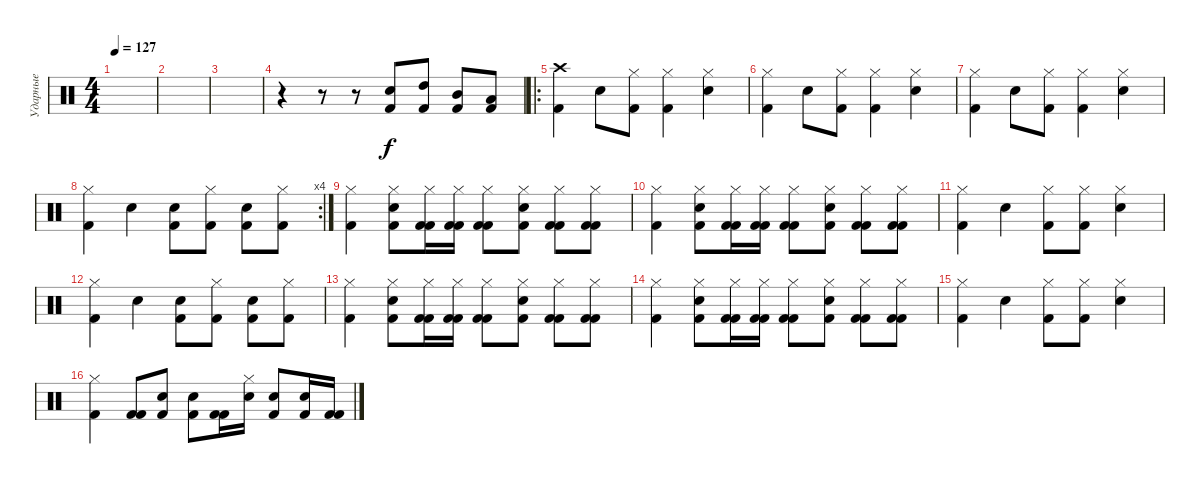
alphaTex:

\track ("Ударные" "Ударные") {instrument percussion}
\staff {score}
\articulation defaults
\ts (4 4)
\tempo 127
\clef neutral
\ks c
|
|
|
r.4 r.8 r.8 ("Kick (hit) 2" "Electric Snare (hit)").8 ("Kick (hit) 2" "High Tom (hit)").8 ("Kick (hit) 2" "Mid Tom (hit)").8 ("Kick (hit) 2" "Low Tom (hit)").8 |
\ro
("Crash high (hit)" "Kick (hit) 2").4 "Electric Snare (hit)".8 ("Hi-Hat (closed)" "Kick (hit) 2").8 ("Hi-Hat (closed)" "Kick (hit) 2").4 ("Hi-Hat (closed)" "Electric Snare (hit)").4 |
("Hi-Hat (closed)" "Kick (hit) 2").4 "Electric Snare (hit)".8 ("Hi-Hat (closed)" "Kick (hit) 2").8 ("Hi-Hat (closed)" "Kick (hit) 2").4 ("Hi-Hat (closed)" "Electric Snare (hit)").4 |
("Hi-Hat (closed)" "Kick (hit) 2").4 "Electric Snare (hit)".8 ("Hi-Hat (closed)" "Kick (hit) 2").8 ("Hi-Hat (closed)" "Kick (hit) 2").4 ("Hi-Hat (closed)" "Electric Snare (hit)").4 |
\rc 4
("Hi-Hat (closed)" "Kick (hit) 2").4 "Electric Snare (hit)".4 ("Kick (hit) 2" "Electric Snare (hit)").8 ("Hi-Hat (closed)" "Kick (hit) 2").8 ("Kick (hit) 2" "Electric Snare (hit)").8 ("Hi-Hat (closed)" "Kick (hit) 2").8 |
("Hi-Hat (closed)" "Kick (hit) 2").4 ("Hi-Hat (closed)" "Kick (hit) 2" "Electric Snare (hit)").8 ("Hi-Hat (closed)" "Kick (hit) 2" "Kick (hit) 2").16 ("Hi-Hat (closed)" "Kick (hit) 2" "Kick (hit) 2").16 ("Hi-Hat (closed)" "Kick (hit) 2" "Kick (hit) 2").8 ("Hi-Hat (closed)" "Kick (hit) 2" "Electric Snare (hit)").8 ("Hi-Hat (closed)" "Kick (hit) 2" "Kick (hit) 2").8 ("Hi-Hat (closed)" "Kick (hit) 2" "Kick (hit) 2").8 |
("Hi-Hat (closed)" "Kick (hit) 2").4 ("Hi-Hat (closed)" "Kick (hit) 2" "Electric Snare (hit)").8 ("Hi-Hat (closed)" "Kick (hit) 2" "Kick (hit) 2").16 ("Hi-Hat (closed)" "Kick (hit) 2" "Kick (hit) 2").16 ("Hi-Hat (closed)" "Kick (hit) 2" "Kick (hit) 2").8 ("Hi-Hat (closed)" "Kick (hit) 2" "Electric Snare (hit)").8 ("Hi-Hat (closed)" "Kick (hit) 2" "Kick (hit) 2").8 ("Hi-Hat (closed)" "Kick (hit) 2" "Kick (hit) 2").8 |
("Hi-Hat (closed)" "Kick (hit) 2").4 "Electric Snare (hit)".4 ("Hi-Hat (closed)" "Kick (hit) 2").8 ("Hi-Hat (closed)" "Kick (hit) 2").8 ("Hi-Hat (closed)" "Electric Snare (hit)").4 |
("Hi-Hat (closed)" "Kick (hit) 2").4 "Electric Snare (hit)".4 ("Kick (hit) 2" "Electric Snare (hit)").8 ("Hi-Hat (closed)" "Kick (hit) 2").8 ("Kick (hit) 2" "Electric Snare (hit)").8 ("Hi-Hat (closed)" "Kick (hit) 2").8 |
("Hi-Hat (closed)" "Kick (hit) 2").4 ("Hi-Hat (closed)" "Kick (hit) 2" "Electric Snare (hit)").8 ("Hi-Hat (closed)" "Kick (hit) 2" "Kick (hit) 2").16 ("Hi-Hat (closed)" "Kick (hit) 2" "Kick (hit) 2").16 ("Hi-Hat (closed)" "Kick (hit) 2" "Kick (hit) 2").8 ("Hi-Hat (closed)" "Kick (hit) 2" "Electric Snare (hit)").8 ("Hi-Hat (closed)" "Kick (hit) 2" "Kick (hit) 2").8 ("Hi-Hat (closed)" "Kick (hit) 2" "Kick (hit) 2").8 |
("Hi-Hat (closed)" "Kick (hit) 2").4 ("Hi-Hat (closed)" "Kick (hit) 2" "Electric Snare (hit)").8 ("Hi-Hat (closed)" "Kick (hit) 2" "Kick (hit) 2").16 ("Hi-Hat (closed)" "Kick (hit) 2" "Kick (hit) 2").16 ("Hi-Hat (closed)" "Kick (hit) 2" "Kick (hit) 2").8 ("Hi-Hat (closed)" "Kick (hit) 2" "Electric Snare (hit)").8 ("Hi-Hat (closed)" "Kick (hit) 2" "Kick (hit) 2").8 ("Hi-Hat (closed)" "Kick (hit) 2" "Kick (hit) 2").8 |
("Hi-Hat (closed)" "Kick (hit) 2").4 "Electric Snare (hit)".4 ("Hi-Hat (closed)" "Kick (hit) 2").8 ("Hi-Hat (closed)" "Kick (hit) 2").8 ("Hi-Hat (closed)" "Electric Snare (hit)").4 |
("Hi-Hat (closed)" "Kick (hit) 2").4 ("Kick (hit) 2" "Kick (hit) 2").8 ("Kick (hit) 2" "Electric Snare (hit)").8 ("Kick (hit) 2" "Electric Snare (hit)").8 ("Kick (hit) 2" "Kick (hit) 2").16 ("Hi-Hat (closed)" "Electric Snare (hit)").16 ("Kick (hit) 2" "Electric Snare (hit)").8 ("Kick (hit) 2" "Electric Snare (hit)").16 ("Kick (hit) 2" "Kick (hit) 2").16
